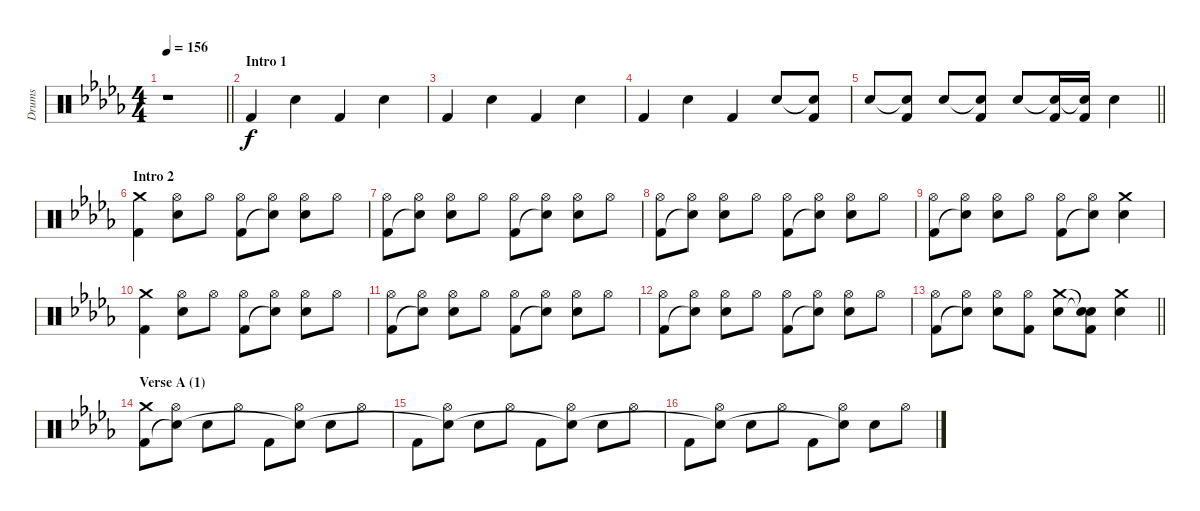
\track ("Drums" "Drums") {instrument percussion}
\staff {score}
\articulation defaults
\ts (4 4)
\tempo 156
\clef neutral
\barLineRight lightlight
\ks db
r.1{dy f} |
\section ("" "Intro 1")
"Kick (hit) 2".4 "Electric Snare (hit)".4 "Kick (hit) 2".4 "Electric Snare (hit)".4 |
"Kick (hit) 2".4 "Electric Snare (hit)".4 "Kick (hit) 2".4 "Electric Snare (hit)".4 |
"Kick (hit) 2".4 "Electric Snare (hit)".4 "Kick (hit) 2".4 "Electric Snare (hit)".8 ("Snare (hit)"{t} "Kick (hit) 2").8 |
\barLineRight lightlight "Electric Snare (hit)".8
("Snare (hit)"{t} "Kick (hit) 2").8 "Electric Snare (hit)".8 ("Snare (hit)"{t} "Kick (hit) 2").8 "Electric Snare (hit)".8 ("Snare (hit)"{t} "Kick (hit) 2").16 ("Snare (hit)"{t} "Kick (hit) 2").16 "Electric Snare (hit)".4 |
\section ("" "Intro 2")
("Crash medium (hit)" "Kick (hit) 2").4 ("Hi-Hat (open)" "Electric Snare (hit)").8 "Hi-Hat (open)".8 ("Hi-Hat (open)" "Kick (hit) 2").8 ("Hi-Hat (open)" "Snare (hit)"{t}).8 ("Hi-Hat (open)" "Electric Snare (hit)").8 "Hi-Hat (open)".8 |
("Hi-Hat (open)" "Kick (hit) 2").8 ("Hi-Hat (open)" "Snare (hit)"{t}).8 ("Hi-Hat (open)" "Electric Snare (hit)").8 "Hi-Hat (open)".8 ("Hi-Hat (open)" "Kick (hit) 2").8 ("Hi-Hat (open)" "Snare (hit)"{t}).8 ("Hi-Hat (open)" "Electric Snare (hit)").8 "Hi-Hat (open)".8 |
("Hi-Hat (open)" "Kick (hit) 2").8 ("Hi-Hat (open)" "Snare (hit)"{t}).8 ("Hi-Hat (open)" "Electric Snare (hit)").8 "Hi-Hat (open)".8 ("Hi-Hat (open)" "Kick (hit) 2").8 ("Hi-Hat (open)" "Snare (hit)"{t}).8 ("Hi-Hat (open)" "Electric Snare (hit)").8 "Hi-Hat (open)".8 |
("Hi-Hat (open)" "Kick (hit) 2").8 ("Hi-Hat (open)" "Snare (hit)"{t}).8 ("Hi-Hat (open)" "Electric Snare (hit)").8 "Hi-Hat (open)".8 ("Hi-Hat (open)" "Kick (hit) 2").8 ("Hi-Hat (open)" "Snare (hit)"{t}).8 ("Crash medium (hit)" "Electric Snare (hit)").4 |
("Crash medium (hit)" "Kick (hit) 2").4 ("Hi-Hat (open)" "Electric Snare (hit)").8 "Hi-Hat (open)".8 ("Hi-Hat (open)" "Kick (hit) 2").8 ("Hi-Hat (open)" "Snare (hit)"{t}).8 ("Hi-Hat (open)" "Electric Snare (hit)").8 "Hi-Hat (open)".8 |
("Hi-Hat (open)" "Kick (hit) 2").8 ("Hi-Hat (open)" "Snare (hit)"{t}).8 ("Hi-Hat (open)" "Electric Snare (hit)").8 "Hi-Hat (open)".8 ("Hi-Hat (open)" "Kick (hit) 2").8 ("Hi-Hat (open)" "Snare (hit)"{t}).8 ("Hi-Hat (open)" "Electric Snare (hit)").8 "Hi-Hat (open)".8 |
("Hi-Hat (open)" "Kick (hit) 2").8 ("Hi-Hat (open)" "Snare (hit)"{t}).8 ("Hi-Hat (open)" "Electric Snare (hit)").8 "Hi-Hat (open)".8 ("Hi-Hat (open)" "Kick (hit) 2").8 ("Hi-Hat (open)" "Snare (hit)"{t}).8 ("Hi-Hat (open)" "Electric Snare (hit)").8 "Hi-Hat (open)".8 |
\barLineRight lightlight
("Hi-Hat (open)" "Kick (hit) 2").8 ("Hi-Hat (open)" "Snare (hit)"{t}).8 ("Hi-Hat (open)" "Electric Snare (hit)").8 ("Hi-Hat (open)" "Kick (hit) 2").8 ("Crash medium (hit)" "Electric Snare (hit)").8 ("Snare (hit)"{t} "Snare (hit)"{t} "Kick (hit) 2").8 ("Crash medium (hit)" "Electric Snare (hit)").4 |
\section ("" "Verse A (1)")
("Crash medium (hit)" "Kick (hit) 2").8 ("Hi-Hat (open)" "Snare (hit)"{t}).8 "Electric Snare (hit)".8 "Hi-Hat (open)".8 "Kick (hit) 2".8 ("Hi-Hat (open)" "Snare (hit)"{t}).8 "Electric Snare (hit)".8 "Hi-Hat (open)".8 |
"Kick (hit) 2".8 ("Hi-Hat (open)" "Snare (hit)"{t}).8 "Electric Snare (hit)".8 "Hi-Hat (open)".8 "Kick (hit) 2".8 ("Hi-Hat (open)" "Snare (hit)"{t}).8 "Electric Snare (hit)".8 "Hi-Hat (open)".8 |
"Kick (hit) 2".8 ("Hi-Hat (open)" "Snare (hit)"{t}).8 "Electric Snare (hit)".8 "Hi-Hat (open)".8 "Kick (hit) 2".8 ("Hi-Hat (open)" "Snare (hit)"{t}).8 "Electric Snare (hit)".8 "Hi-Hat (open)".8
